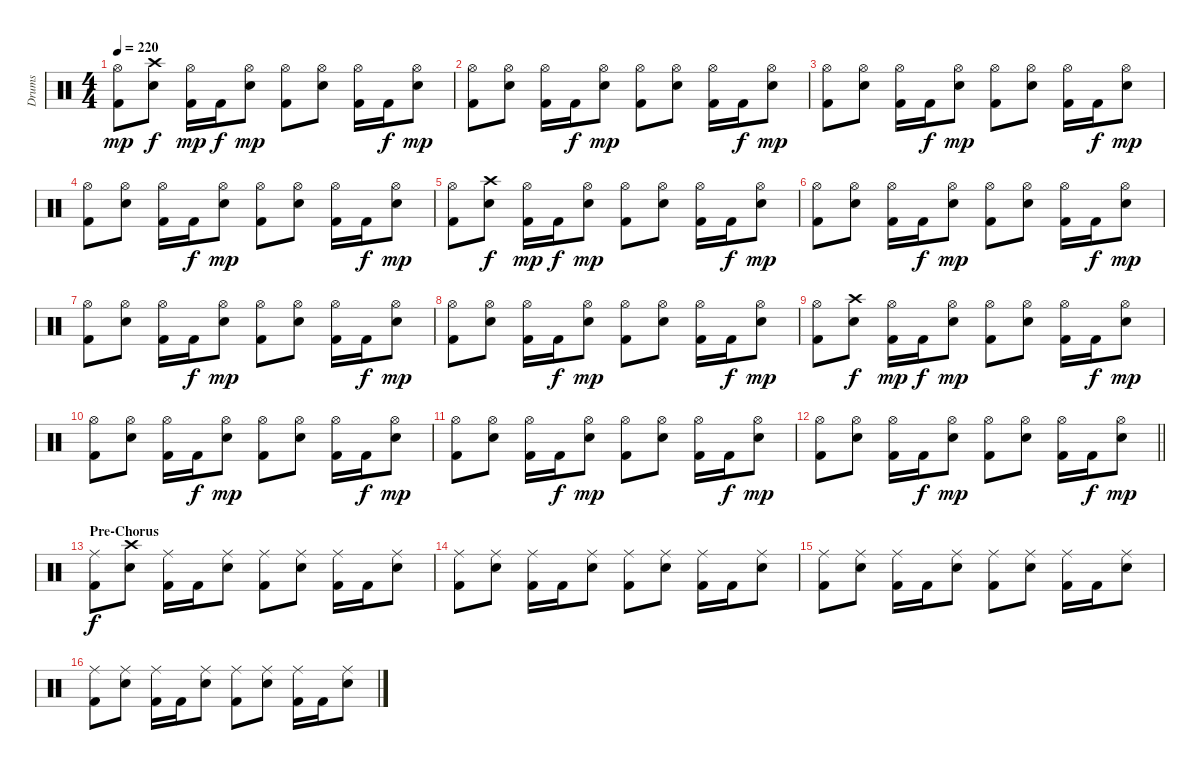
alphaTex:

\track ("Drums" "Drums") {instrument percussion}
\staff {score}
\articulation defaults
\ts (4 4)
\tempo 220
\clef neutral
\ks c
("Hi-Hat (open)" "Kick (hit) 2").8{dy mp} ("Crash high (hit)" "Snare (hit) 2").8{dy f} ("Hi-Hat (open)" "Kick (hit) 2").16{dy mp} "Kick (hit) 2".16{dy f} ("Hi-Hat (open)" "Snare (hit) 2").8{dy mp} ("Hi-Hat (open)" "Kick (hit) 2").8 ("Hi-Hat (open)" "Snare (hit) 2").8 ("Hi-Hat (open)" "Kick (hit) 2").16 "Kick (hit) 2".16{dy f} ("Hi-Hat (open)" "Snare (hit) 2").8{dy mp} |
("Hi-Hat (open)" "Kick (hit) 2").8 ("Hi-Hat (open)" "Snare (hit) 2").8 ("Hi-Hat (open)" "Kick (hit) 2").16 "Kick (hit) 2".16{dy f} ("Hi-Hat (open)" "Snare (hit) 2").8{dy mp} ("Hi-Hat (open)" "Kick (hit) 2").8 ("Hi-Hat (open)" "Snare (hit) 2").8 ("Hi-Hat (open)" "Kick (hit) 2").16 "Kick (hit) 2".16{dy f} ("Hi-Hat (open)" "Snare (hit) 2").8{dy mp} |
("Hi-Hat (open)" "Kick (hit) 2").8 ("Hi-Hat (open)" "Snare (hit) 2").8 ("Hi-Hat (open)" "Kick (hit) 2").16 "Kick (hit) 2".16{dy f} ("Hi-Hat (open)" "Snare (hit) 2").8{dy mp} ("Hi-Hat (open)" "Kick (hit) 2").8 ("Hi-Hat (open)" "Snare (hit) 2").8 ("Hi-Hat (open)" "Kick (hit) 2").16 "Kick (hit) 2".16{dy f} ("Hi-Hat (open)" "Snare (hit) 2").8{dy mp} |
("Hi-Hat (open)" "Kick (hit) 2").8 ("Hi-Hat (open)" "Snare (hit) 2").8 ("Hi-Hat (open)" "Kick (hit) 2").16 "Kick (hit) 2".16{dy f} ("Hi-Hat (open)" "Snare (hit) 2").8{dy mp} ("Hi-Hat (open)" "Kick (hit) 2").8 ("Hi-Hat (open)" "Snare (hit) 2").8 ("Hi-Hat (open)" "Kick (hit) 2").16 "Kick (hit) 2".16{dy f} ("Hi-Hat (open)" "Snare (hit) 2").8{dy mp} |
("Hi-Hat (open)" "Kick (hit) 2").8 ("Crash high (hit)" "Snare (hit) 2").8{dy f} ("Hi-Hat (open)" "Kick (hit) 2").16{dy mp} "Kick (hit) 2".16{dy f} ("Hi-Hat (open)" "Snare (hit) 2").8{dy mp} ("Hi-Hat (open)" "Kick (hit) 2").8 ("Hi-Hat (open)" "Snare (hit) 2").8 ("Hi-Hat (open)" "Kick (hit) 2").16 "Kick (hit) 2".16{dy f} ("Hi-Hat (open)" "Snare (hit) 2").8{dy mp} |
("Hi-Hat (open)" "Kick (hit) 2").8 ("Hi-Hat (open)" "Snare (hit) 2").8 ("Hi-Hat (open)" "Kick (hit) 2").16 "Kick (hit) 2".16{dy f} ("Hi-Hat (open)" "Snare (hit) 2").8{dy mp} ("Hi-Hat (open)" "Kick (hit) 2").8 ("Hi-Hat (open)" "Snare (hit) 2").8 ("Hi-Hat (open)" "Kick (hit) 2").16 "Kick (hit) 2".16{dy f} ("Hi-Hat (open)" "Snare (hit) 2").8{dy mp} |
("Hi-Hat (open)" "Kick (hit) 2").8 ("Hi-Hat (open)" "Snare (hit) 2").8 ("Hi-Hat (open)" "Kick (hit) 2").16 "Kick (hit) 2".16{dy f} ("Hi-Hat (open)" "Snare (hit) 2").8{dy mp} ("Hi-Hat (open)" "Kick (hit) 2").8 ("Hi-Hat (open)" "Snare (hit) 2").8 ("Hi-Hat (open)" "Kick (hit) 2").16 "Kick (hit) 2".16{dy f} ("Hi-Hat (open)" "Snare (hit) 2").8{dy mp} |
("Hi-Hat (open)" "Kick (hit) 2").8 ("Hi-Hat (open)" "Snare (hit) 2").8 ("Hi-Hat (open)" "Kick (hit) 2").16 "Kick (hit) 2".16{dy f} ("Hi-Hat (open)" "Snare (hit) 2").8{dy mp} ("Hi-Hat (open)" "Kick (hit) 2").8 ("Hi-Hat (open)" "Snare (hit) 2").8 ("Hi-Hat (open)" "Kick (hit) 2").16 "Kick (hit) 2".16{dy f} ("Hi-Hat (open)" "Snare (hit) 2").8{dy mp} |
("Hi-Hat (open)" "Kick (hit) 2").8 ("Crash high (hit)" "Snare (hit) 2").8{dy f} ("Hi-Hat (open)" "Kick (hit) 2").16{dy mp} "Kick (hit) 2".16{dy f} ("Hi-Hat (open)" "Snare (hit) 2").8{dy mp} ("Hi-Hat (open)" "Kick (hit) 2").8 ("Hi-Hat (open)" "Snare (hit) 2").8 ("Hi-Hat (open)" "Kick (hit) 2").16 "Kick (hit) 2".16{dy f} ("Hi-Hat (open)" "Snare (hit) 2").8{dy mp} |
("Hi-Hat (open)" "Kick (hit) 2").8 ("Hi-Hat (open)" "Snare (hit) 2").8 ("Hi-Hat (open)" "Kick (hit) 2").16 "Kick (hit) 2".16{dy f} ("Hi-Hat (open)" "Snare (hit) 2").8{dy mp} ("Hi-Hat (open)" "Kick (hit) 2").8 ("Hi-Hat (open)" "Snare (hit) 2").8 ("Hi-Hat (open)" "Kick (hit) 2").16 "Kick (hit) 2".16{dy f} ("Hi-Hat (open)" "Snare (hit) 2").8{dy mp} |
("Hi-Hat (open)" "Kick (hit) 2").8 ("Hi-Hat (open)" "Snare (hit) 2").8 ("Hi-Hat (open)" "Kick (hit) 2").16 "Kick (hit) 2".16{dy f} ("Hi-Hat (open)" "Snare (hit) 2").8{dy mp} ("Hi-Hat (open)" "Kick (hit) 2").8 ("Hi-Hat (open)" "Snare (hit) 2").8 ("Hi-Hat (open)" "Kick (hit) 2").16 "Kick (hit) 2".16{dy f} ("Hi-Hat (open)" "Snare (hit) 2").8{dy mp} |
\barLineRight lightlight
("Hi-Hat (open)" "Kick (hit) 2").8 ("Hi-Hat (open)" "Snare (hit) 2").8 ("Hi-Hat (open)" "Kick (hit) 2").16 "Kick (hit) 2".16{dy f} ("Hi-Hat (open)" "Snare (hit) 2").8{dy mp} ("Hi-Hat (open)" "Kick (hit) 2").8 ("Hi-Hat (open)" "Snare (hit) 2").8 ("Hi-Hat (open)" "Kick (hit) 2").16 "Kick (hit) 2".16{dy f} ("Hi-Hat (open)" "Snare (hit) 2").8{dy mp} |
\section ("" "Pre-Chorus")
("Ride (middle)" "Kick (hit) 2").8{dy f} ("Crash high (hit)" "Snare (hit) 2").8 ("Ride (middle)" "Kick (hit) 2").16 "Kick (hit) 2".16 ("Ride (middle)" "Snare (hit) 2").8 ("Ride (middle)" "Kick (hit) 2").8 ("Ride (middle)" "Snare (hit) 2").8 ("Ride (middle)" "Kick (hit) 2").16 "Kick (hit) 2".16 ("Ride (middle)" "Snare (hit) 2").8 |
("Ride (middle)" "Kick (hit) 2").8 ("Ride (middle)" "Snare (hit) 2").8 ("Ride (middle)" "Kick (hit) 2").16 "Kick (hit) 2".16 ("Ride (middle)" "Snare (hit) 2").8 ("Ride (middle)" "Kick (hit) 2").8 ("Ride (middle)" "Snare (hit) 2").8 ("Ride (middle)" "Kick (hit) 2").16 "Kick (hit) 2".16 ("Ride (middle)" "Snare (hit) 2").8 |
("Ride (middle)" "Kick (hit) 2").8 ("Ride (middle)" "Snare (hit) 2").8 ("Ride (middle)" "Kick (hit) 2").16 "Kick (hit) 2".16 ("Ride (middle)" "Snare (hit) 2").8 ("Ride (middle)" "Kick (hit) 2").8 ("Ride (middle)" "Snare (hit) 2").8 ("Ride (middle)" "Kick (hit) 2").16 "Kick (hit) 2".16 ("Ride (middle)" "Snare (hit) 2").8 |
("Ride (middle)" "Kick (hit) 2").8 ("Ride (middle)" "Snare (hit) 2").8 ("Ride (middle)" "Kick (hit) 2").16 "Kick (hit) 2".16 ("Ride (middle)" "Snare (hit) 2").8 ("Ride (middle)" "Kick (hit) 2").8 ("Ride (middle)" "Snare (hit) 2").8 ("Ride (middle)" "Kick (hit) 2").16 "Kick (hit) 2".16 ("Ride (middle)" "Snare (hit) 2").8
